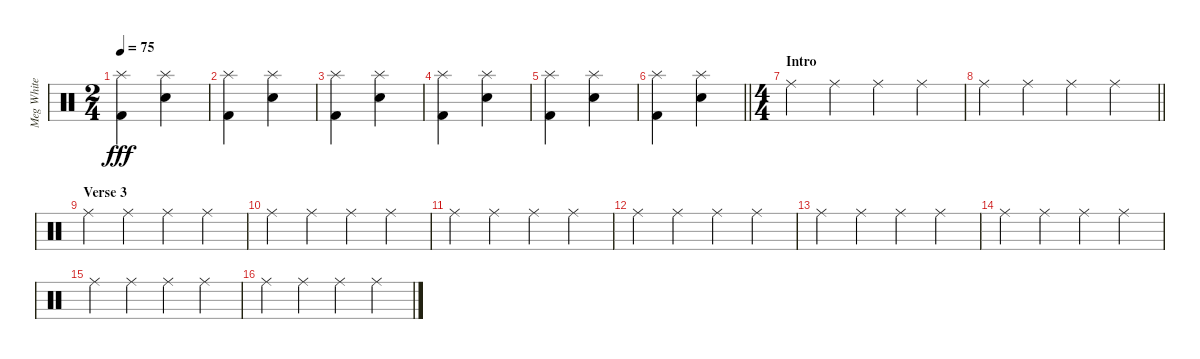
\track ("Meg White (Drums)" "Meg White ") {instrument percussion}
\staff {score}
\articulation defaults
\ts (2 4)
\tempo 75
\clef neutral
\ks c
("Kick (hit) 2" "Splash (hit)").4{dy fff} ("Electric Snare (hit)" "Splash (hit)").4 |
("Kick (hit) 2" "Splash (hit)").4 ("Electric Snare (hit)" "Splash (hit)").4 |
("Kick (hit) 2" "Splash (hit)").4 ("Electric Snare (hit)" "Splash (hit)").4 |
("Kick (hit) 2" "Splash (hit)").4 ("Electric Snare (hit)" "Splash (hit)").4 |
("Kick (hit) 2" "Splash (hit)").4 ("Electric Snare (hit)" "Splash (hit)").4 |
\barLineRight lightlight
("Kick (hit) 2" "Splash (hit)").4 ("Electric Snare (hit)" "Splash (hit)").4 |
\ts (4 4)
\section ("" "Intro")
"Ride (middle)".4 "Ride (middle)".4 "Ride (middle)".4 "Ride (middle)".4 |
\barLineRight lightlight "Ride (middle)".4 "Ride (middle)".4 "Ride (middle)".4 "Ride (middle)".4
|
\section ("" "Verse 3")
"Ride (middle)".4 "Ride (middle)".4 "Ride (middle)".4 "Ride (middle)".4 |
"Ride (middle)".4 "Ride (middle)".4 "Ride (middle)".4 "Ride (middle)".4 |
"Ride (middle)".4 "Ride (middle)".4 "Ride (middle)".4 "Ride (middle)".4 |
"Ride (middle)".4 "Ride (middle)".4 "Ride (middle)".4 "Ride (middle)".4 |
"Ride (middle)".4 "Ride (middle)".4 "Ride (middle)".4 "Ride (middle)".4 |
"Ride (middle)".4 "Ride (middle)".4 "Ride (middle)".4 "Ride (middle)".4 |
"Ride (middle)".4 "Ride (middle)".4 "Ride (middle)".4 "Ride (middle)".4 |
"Ride (middle)".4 "Ride (middle)".4 "Ride (middle)".4 "Ride (middle)".4
